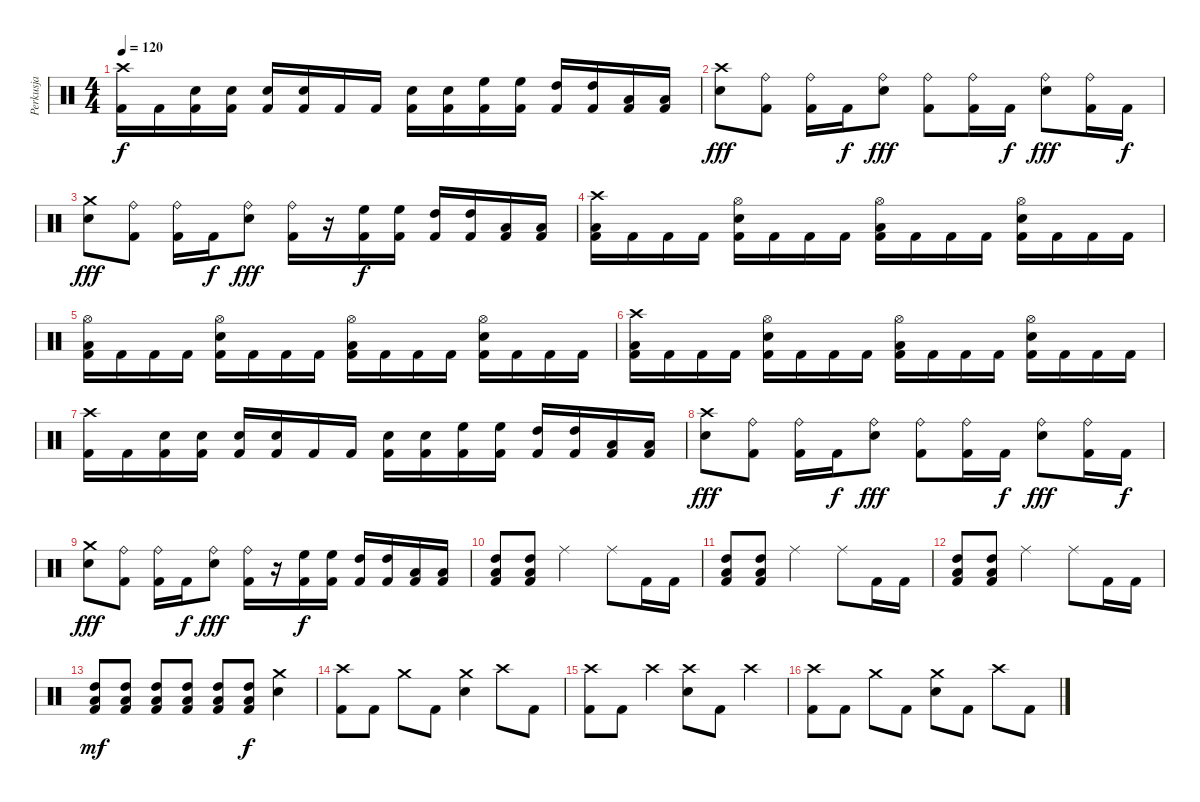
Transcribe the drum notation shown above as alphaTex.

\track ("Perkusja" "Perkusja") {instrument percussion}
\staff {score}
\articulation defaults
\ts (4 4)
\tempo 120
\clef neutral
\ks c
("Crash high (hit)" "Kick (hit) 2").16{dy f} "Kick (hit) 2".16 ("Electric Snare (hit)" "Kick (hit) 2").16 ("Electric Snare (hit)" "Kick (hit) 2").16 ("Electric Snare (hit)" "Kick (hit) 2").16 ("Electric Snare (hit)" "Kick (hit) 2").16 "Kick (hit) 2".16 "Kick (hit) 2".16 ("Electric Snare (hit)" "Kick (hit) 2").16 ("Electric Snare (hit)" "Kick (hit) 2").16 ("High Floor Tom (hit)" "Kick (hit) 2").16 ("High Floor Tom (hit)" "Kick (hit) 2").16 ("High Tom (hit)" "Kick (hit) 2").16 ("High Tom (hit)" "Kick (hit) 2").16 ("Low Floor Tom (hit)" "Kick (hit) 2").16 ("Low Floor Tom (hit)" "Kick (hit) 2").16 |
("Crash high (hit)" "Electric Snare (hit)").8{dy fff} ("Ride (bell)" "Kick (hit) 2").8 ("Ride (bell)" "Kick (hit) 2").16 "Kick (hit) 2".16{dy f} ("Ride (bell)" "Electric Snare (hit)").8{dy fff} ("Ride (bell)" "Kick (hit) 2").8 ("Ride (bell)" "Kick (hit) 2").16 "Kick (hit) 2".16{dy f} ("Ride (bell)" "Electric Snare (hit)").8{dy fff} ("Ride (bell)" "Kick (hit) 2").16 "Kick (hit) 2".16{dy f} |
("Crash medium (hit)" "Electric Snare (hit)").8{dy fff} ("Ride (bell)" "Kick (hit) 2").8 ("Ride (bell)" "Kick (hit) 2").16 "Kick (hit) 2".16{dy f} ("Ride (bell)" "Electric Snare (hit)").8{dy fff} ("Ride (bell)" "Kick (hit) 2").16 r.16 ("High Floor Tom (hit)" "Kick (hit) 2").16{dy f} ("High Floor Tom (hit)" "Kick (hit) 2").16 ("High Tom (hit)" "Kick (hit) 2").16 ("High Tom (hit)" "Kick (hit) 2").16 ("Low Floor Tom (hit)" "Kick (hit) 2").16 ("Low Floor Tom (hit)" "Kick (hit) 2").16 |
("Crash high (hit)" "Low Floor Tom (hit)" "Kick (hit) 2").16 "Kick (hit) 2".16 "Kick (hit) 2".16 "Kick (hit) 2".16 ("Hi-Hat (open)" "Electric Snare (hit)" "Kick (hit) 2").16 "Kick (hit) 2".16 "Kick (hit) 2".16 "Kick (hit) 2".16 ("Hi-Hat (open)" "Low Floor Tom (hit)" "Kick (hit) 2").16 "Kick (hit) 2".16 "Kick (hit) 2".16 "Kick (hit) 2".16 ("Hi-Hat (open)" "Electric Snare (hit)" "Kick (hit) 2").16 "Kick (hit) 2".16 "Kick (hit) 2".16 "Kick (hit) 2".16 |
("Hi-Hat (open)" "Low Floor Tom (hit)" "Kick (hit) 2").16 "Kick (hit) 2".16 "Kick (hit) 2".16 "Kick (hit) 2".16 ("Hi-Hat (open)" "Electric Snare (hit)" "Kick (hit) 2").16 "Kick (hit) 2".16 "Kick (hit) 2".16 "Kick (hit) 2".16 ("Hi-Hat (open)" "Low Floor Tom (hit)" "Kick (hit) 2").16 "Kick (hit) 2".16 "Kick (hit) 2".16 "Kick (hit) 2".16 ("Hi-Hat (open)" "Electric Snare (hit)" "Kick (hit) 2").16 "Kick (hit) 2".16 "Kick (hit) 2".16 "Kick (hit) 2".16 |
("Crash high (hit)" "Low Floor Tom (hit)" "Kick (hit) 2").16 "Kick (hit) 2".16 "Kick (hit) 2".16 "Kick (hit) 2".16 ("Hi-Hat (open)" "Electric Snare (hit)" "Kick (hit) 2").16 "Kick (hit) 2".16 "Kick (hit) 2".16 "Kick (hit) 2".16 ("Hi-Hat (open)" "Low Floor Tom (hit)" "Kick (hit) 2").16 "Kick (hit) 2".16 "Kick (hit) 2".16 "Kick (hit) 2".16 ("Hi-Hat (open)" "Electric Snare (hit)" "Kick (hit) 2").16 "Kick (hit) 2".16 "Kick (hit) 2".16 "Kick (hit) 2".16 |
("Crash high (hit)" "Kick (hit) 2").16 "Kick (hit) 2".16 ("Electric Snare (hit)" "Kick (hit) 2").16 ("Electric Snare (hit)" "Kick (hit) 2").16 ("Electric Snare (hit)" "Kick (hit) 2").16 ("Electric Snare (hit)" "Kick (hit) 2").16 "Kick (hit) 2".16 "Kick (hit) 2".16 ("Electric Snare (hit)" "Kick (hit) 2").16 ("Electric Snare (hit)" "Kick (hit) 2").16 ("High Floor Tom (hit)" "Kick (hit) 2").16 ("High Floor Tom (hit)" "Kick (hit) 2").16 ("High Tom (hit)" "Kick (hit) 2").16 ("High Tom (hit)" "Kick (hit) 2").16 ("Low Floor Tom (hit)" "Kick (hit) 2").16 ("Low Floor Tom (hit)" "Kick (hit) 2").16 |
("Crash high (hit)" "Electric Snare (hit)").8{dy fff} ("Ride (bell)" "Kick (hit) 2").8 ("Ride (bell)" "Kick (hit) 2").16 "Kick (hit) 2".16{dy f} ("Ride (bell)" "Electric Snare (hit)").8{dy fff} ("Ride (bell)" "Kick (hit) 2").8 ("Ride (bell)" "Kick (hit) 2").16 "Kick (hit) 2".16{dy f} ("Ride (bell)" "Electric Snare (hit)").8{dy fff} ("Ride (bell)" "Kick (hit) 2").16 "Kick (hit) 2".16{dy f} |
("Crash medium (hit)" "Electric Snare (hit)").8{dy fff} ("Ride (bell)" "Kick (hit) 2").8 ("Ride (bell)" "Kick (hit) 2").16 "Kick (hit) 2".16{dy f} ("Ride (bell)" "Electric Snare (hit)").8{dy fff} ("Ride (bell)" "Kick (hit) 2").16 r.16 ("High Floor Tom (hit)" "Kick (hit) 2").16{dy f} ("High Floor Tom (hit)" "Kick (hit) 2").16 ("High Tom (hit)" "Kick (hit) 2").16 ("High Tom (hit)" "Kick (hit) 2").16 ("Low Floor Tom (hit)" "Kick (hit) 2").16 ("Low Floor Tom (hit)" "Kick (hit) 2").16 |
("High Tom (hit)" "Low Floor Tom (hit)" "Kick (hit) 2").8 ("High Tom (hit)" "Low Floor Tom (hit)" "Kick (hit) 2").8 "Ride (middle)".2 "Ride (middle)".8 "Kick (hit) 2".16 "Kick (hit) 2".16 |
("High Tom (hit)" "Low Floor Tom (hit)" "Kick (hit) 2").8 ("High Tom (hit)" "Low Floor Tom (hit)" "Kick (hit) 2").8 "Ride (middle)".2 "Ride (middle)".8 "Kick (hit) 2".16 "Kick (hit) 2".16 |
("High Tom (hit)" "Low Floor Tom (hit)" "Kick (hit) 2").8 ("High Tom (hit)" "Low Floor Tom (hit)" "Kick (hit) 2").8 "Ride (middle)".2 "Ride (middle)".8 "Kick (hit) 2".16 "Kick (hit) 2".16 |
("High Tom (hit)" "Low Floor Tom (hit)" "Kick (hit) 2").8{dy mf} ("High Tom (hit)" "Low Floor Tom (hit)" "Kick (hit) 2").8 ("High Tom (hit)" "Low Floor Tom (hit)" "Kick (hit) 2").8 ("High Tom (hit)" "Low Floor Tom (hit)" "Kick (hit) 2").8 ("High Tom (hit)" "Low Floor Tom (hit)" "Kick (hit) 2").8 ("High Tom (hit)" "Low Floor Tom (hit)" "Kick (hit) 2").8{dy f} ("Crash medium (hit)" "Electric Snare (hit)").4 |
("Crash high (hit)" "Kick (hit) 2").8 "Kick (hit) 2".8 "Crash medium (hit)".8 "Kick (hit) 2".8 ("Crash medium (hit)" "Electric Snare (hit)").4 "Crash high (hit)".8 "Kick (hit) 2".8 |
("Crash high (hit)" "Kick (hit) 2").8 "Kick (hit) 2".8 "Crash high (hit)".4 ("Crash high (hit)" "Electric Snare (hit)").8 "Kick (hit) 2".8 "Crash high (hit)".4 |
("Crash high (hit)" "Kick (hit) 2").8 "Kick (hit) 2".8 "Crash medium (hit)".8 "Kick (hit) 2".8 ("Crash medium (hit)" "Electric Snare (hit)").8 "Kick (hit) 2".8 "Crash high (hit)".8 "Kick (hit) 2".8
